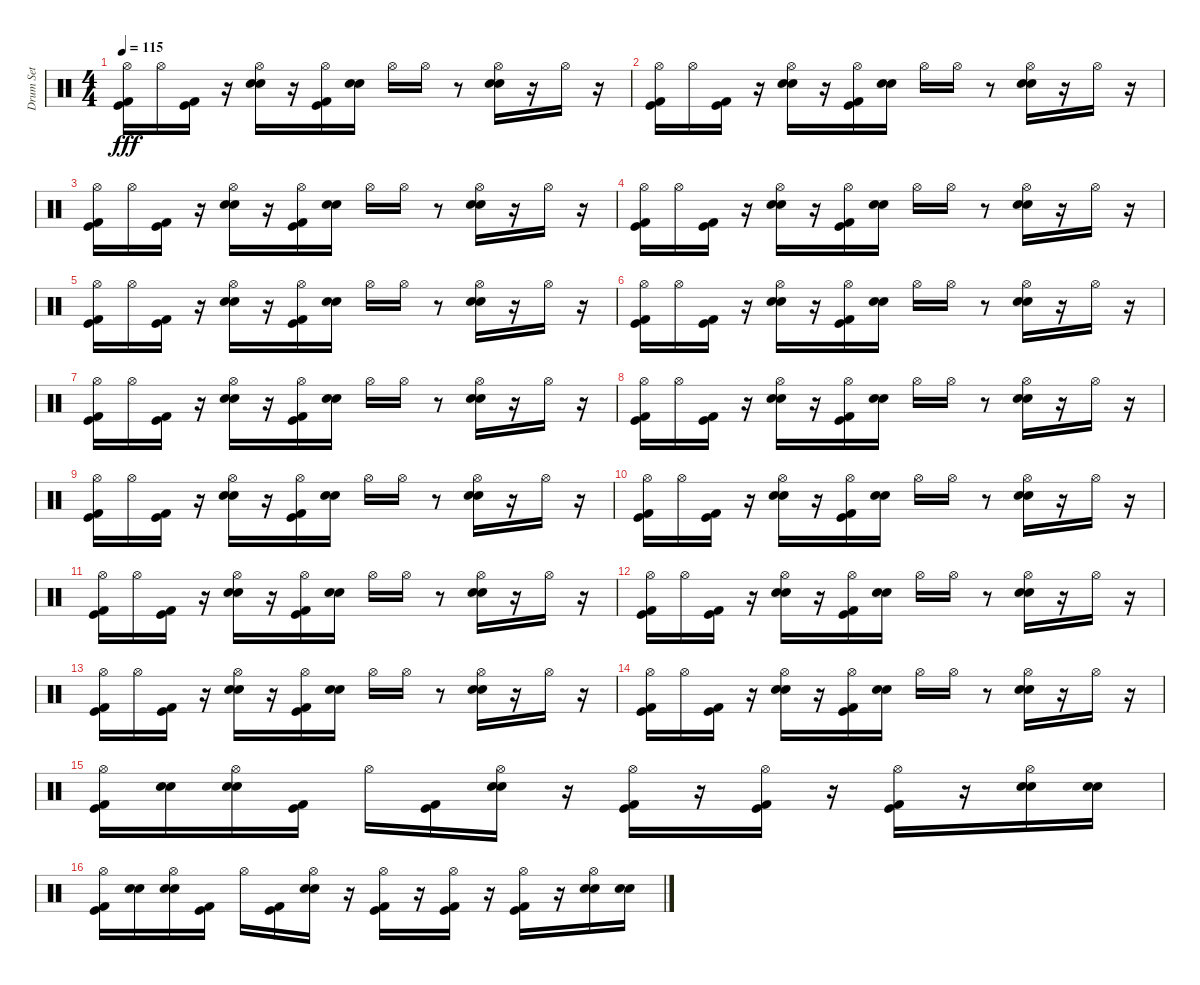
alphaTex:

\track ("Drum Set" "Drum Set") {instrument percussion}
\staff {score}
\articulation defaults
\ts (4 4)
\tempo 115
\clef neutral
\ks c
("Hi-Hat (open)" "Kick (hit)" "Kick (hit) 2").16{dy fff} "Hi-Hat (open)".16 ("Kick (hit)" "Kick (hit) 2").16 r.16 ("Hi-Hat (open)" "Electric Snare (hit)" "Snare (hit) 2").16 r.16 ("Hi-Hat (open)" "Kick (hit) 2" "Kick (hit)").16 ("Electric Snare (hit)" "Snare (hit) 2").16 "Hi-Hat (open)".16 "Hi-Hat (open)".16 r.8 ("Hi-Hat (open)" "Electric Snare (hit)" "Snare (hit) 2").16 r.16 "Hi-Hat (open)".16 r.16 |
("Hi-Hat (open)" "Kick (hit)" "Kick (hit) 2").16 "Hi-Hat (open)".16 ("Kick (hit)" "Kick (hit) 2").16 r.16 ("Hi-Hat (open)" "Electric Snare (hit)" "Snare (hit) 2").16 r.16 ("Hi-Hat (open)" "Kick (hit) 2" "Kick (hit)").16 ("Electric Snare (hit)" "Snare (hit) 2").16 "Hi-Hat (open)".16 "Hi-Hat (open)".16 r.8 ("Hi-Hat (open)" "Electric Snare (hit)" "Snare (hit) 2").16 r.16 "Hi-Hat (open)".16 r.16 |
("Hi-Hat (open)" "Kick (hit)" "Kick (hit) 2").16 "Hi-Hat (open)".16 ("Kick (hit)" "Kick (hit) 2").16 r.16 ("Hi-Hat (open)" "Electric Snare (hit)" "Snare (hit) 2").16 r.16 ("Hi-Hat (open)" "Kick (hit) 2" "Kick (hit)").16 ("Electric Snare (hit)" "Snare (hit) 2").16 "Hi-Hat (open)".16 "Hi-Hat (open)".16 r.8 ("Hi-Hat (open)" "Electric Snare (hit)" "Snare (hit) 2").16 r.16 "Hi-Hat (open)".16 r.16 |
("Hi-Hat (open)" "Kick (hit)" "Kick (hit) 2").16 "Hi-Hat (open)".16 ("Kick (hit)" "Kick (hit) 2").16 r.16 ("Hi-Hat (open)" "Electric Snare (hit)" "Snare (hit) 2").16 r.16 ("Hi-Hat (open)" "Kick (hit) 2" "Kick (hit)").16 ("Electric Snare (hit)" "Snare (hit) 2").16 "Hi-Hat (open)".16 "Hi-Hat (open)".16 r.8 ("Hi-Hat (open)" "Electric Snare (hit)" "Snare (hit) 2").16 r.16 "Hi-Hat (open)".16 r.16 |
("Hi-Hat (open)" "Kick (hit)" "Kick (hit) 2").16 "Hi-Hat (open)".16 ("Kick (hit)" "Kick (hit) 2").16 r.16 ("Hi-Hat (open)" "Electric Snare (hit)" "Snare (hit) 2").16 r.16 ("Hi-Hat (open)" "Kick (hit) 2" "Kick (hit)").16 ("Electric Snare (hit)" "Snare (hit) 2").16 "Hi-Hat (open)".16 "Hi-Hat (open)".16 r.8 ("Hi-Hat (open)" "Electric Snare (hit)" "Snare (hit) 2").16 r.16 "Hi-Hat (open)".16 r.16 |
("Hi-Hat (open)" "Kick (hit)" "Kick (hit) 2").16 "Hi-Hat (open)".16 ("Kick (hit)" "Kick (hit) 2").16 r.16 ("Hi-Hat (open)" "Electric Snare (hit)" "Snare (hit) 2").16 r.16 ("Hi-Hat (open)" "Kick (hit) 2" "Kick (hit)").16 ("Electric Snare (hit)" "Snare (hit) 2").16 "Hi-Hat (open)".16 "Hi-Hat (open)".16 r.8 ("Hi-Hat (open)" "Electric Snare (hit)" "Snare (hit) 2").16 r.16 "Hi-Hat (open)".16 r.16 |
("Hi-Hat (open)" "Kick (hit)" "Kick (hit) 2").16 "Hi-Hat (open)".16 ("Kick (hit)" "Kick (hit) 2").16 r.16 ("Hi-Hat (open)" "Electric Snare (hit)" "Snare (hit) 2").16 r.16 ("Hi-Hat (open)" "Kick (hit) 2" "Kick (hit)").16 ("Electric Snare (hit)" "Snare (hit) 2").16 "Hi-Hat (open)".16 "Hi-Hat (open)".16 r.8 ("Hi-Hat (open)" "Electric Snare (hit)" "Snare (hit) 2").16 r.16 "Hi-Hat (open)".16 r.16 |
("Hi-Hat (open)" "Kick (hit)" "Kick (hit) 2").16 "Hi-Hat (open)".16 ("Kick (hit)" "Kick (hit) 2").16 r.16 ("Hi-Hat (open)" "Electric Snare (hit)" "Snare (hit) 2").16 r.16 ("Hi-Hat (open)" "Kick (hit) 2" "Kick (hit)").16 ("Electric Snare (hit)" "Snare (hit) 2").16 "Hi-Hat (open)".16 "Hi-Hat (open)".16 r.8 ("Hi-Hat (open)" "Electric Snare (hit)" "Snare (hit) 2").16 r.16 "Hi-Hat (open)".16 r.16 |
("Hi-Hat (open)" "Kick (hit)" "Kick (hit) 2").16 "Hi-Hat (open)".16 ("Kick (hit)" "Kick (hit) 2").16 r.16 ("Hi-Hat (open)" "Electric Snare (hit)" "Snare (hit) 2").16 r.16 ("Hi-Hat (open)" "Kick (hit) 2" "Kick (hit)").16 ("Electric Snare (hit)" "Snare (hit) 2").16 "Hi-Hat (open)".16 "Hi-Hat (open)".16 r.8 ("Hi-Hat (open)" "Electric Snare (hit)" "Snare (hit) 2").16 r.16 "Hi-Hat (open)".16 r.16 |
("Hi-Hat (open)" "Kick (hit)" "Kick (hit) 2").16 "Hi-Hat (open)".16 ("Kick (hit)" "Kick (hit) 2").16 r.16 ("Hi-Hat (open)" "Electric Snare (hit)" "Snare (hit) 2").16 r.16 ("Hi-Hat (open)" "Kick (hit) 2" "Kick (hit)").16 ("Electric Snare (hit)" "Snare (hit) 2").16 "Hi-Hat (open)".16 "Hi-Hat (open)".16 r.8 ("Hi-Hat (open)" "Electric Snare (hit)" "Snare (hit) 2").16 r.16 "Hi-Hat (open)".16 r.16 |
("Hi-Hat (open)" "Kick (hit)" "Kick (hit) 2").16 "Hi-Hat (open)".16 ("Kick (hit)" "Kick (hit) 2").16 r.16 ("Hi-Hat (open)" "Electric Snare (hit)" "Snare (hit) 2").16 r.16 ("Hi-Hat (open)" "Kick (hit) 2" "Kick (hit)").16 ("Electric Snare (hit)" "Snare (hit) 2").16 "Hi-Hat (open)".16 "Hi-Hat (open)".16 r.8 ("Hi-Hat (open)" "Electric Snare (hit)" "Snare (hit) 2").16 r.16 "Hi-Hat (open)".16 r.16 |
("Hi-Hat (open)" "Kick (hit)" "Kick (hit) 2").16 "Hi-Hat (open)".16 ("Kick (hit)" "Kick (hit) 2").16 r.16 ("Hi-Hat (open)" "Electric Snare (hit)" "Snare (hit) 2").16 r.16 ("Hi-Hat (open)" "Kick (hit) 2" "Kick (hit)").16 ("Electric Snare (hit)" "Snare (hit) 2").16 "Hi-Hat (open)".16 "Hi-Hat (open)".16 r.8 ("Hi-Hat (open)" "Electric Snare (hit)" "Snare (hit) 2").16 r.16 "Hi-Hat (open)".16 r.16 |
("Hi-Hat (open)" "Kick (hit)" "Kick (hit) 2").16 "Hi-Hat (open)".16 ("Kick (hit)" "Kick (hit) 2").16 r.16 ("Hi-Hat (open)" "Electric Snare (hit)" "Snare (hit) 2").16 r.16 ("Hi-Hat (open)" "Kick (hit) 2" "Kick (hit)").16 ("Electric Snare (hit)" "Snare (hit) 2").16 "Hi-Hat (open)".16 "Hi-Hat (open)".16 r.8 ("Hi-Hat (open)" "Electric Snare (hit)" "Snare (hit) 2").16 r.16 "Hi-Hat (open)".16 r.16 |
("Hi-Hat (open)" "Kick (hit)" "Kick (hit) 2").16 "Hi-Hat (open)".16 ("Kick (hit)" "Kick (hit) 2").16 r.16 ("Hi-Hat (open)" "Electric Snare (hit)" "Snare (hit) 2").16 r.16 ("Hi-Hat (open)" "Kick (hit) 2" "Kick (hit)").16 ("Electric Snare (hit)" "Snare (hit) 2").16 "Hi-Hat (open)".16 "Hi-Hat (open)".16 r.8 ("Hi-Hat (open)" "Electric Snare (hit)" "Snare (hit) 2").16 r.16 "Hi-Hat (open)".16 r.16 |
("Hi-Hat (open)" "Kick (hit) 2" "Kick (hit)").16 ("Electric Snare (hit)" "Snare (hit) 2").16 ("Hi-Hat (open)" "Snare (hit) 2" "Electric Snare (hit)").16 ("Kick (hit)" "Kick (hit) 2").16 "Hi-Hat (open)".16 ("Kick (hit) 2" "Kick (hit)").16 ("Hi-Hat (open)" "Electric Snare (hit)" "Snare (hit) 2").16 r.16 ("Kick (hit)" "Kick (hit) 2" "Hi-Hat (open)").16 r.16 ("Hi-Hat (open)" "Kick (hit) 2" "Kick (hit)").16 r.16 ("Hi-Hat (open)" "Kick (hit)" "Kick (hit) 2").16 r.16 ("Hi-Hat (open)" "Electric Snare (hit)" "Snare (hit) 2").16 ("Snare (hit) 2" "Electric Snare (hit)").16 |
("Hi-Hat (open)" "Kick (hit) 2" "Kick (hit)").16 ("Electric Snare (hit)" "Snare (hit) 2").16 ("Hi-Hat (open)" "Snare (hit) 2" "Electric Snare (hit)").16 ("Kick (hit)" "Kick (hit) 2").16 "Hi-Hat (open)".16 ("Kick (hit) 2" "Kick (hit)").16 ("Hi-Hat (open)" "Electric Snare (hit)" "Snare (hit) 2").16 r.16 ("Kick (hit)" "Kick (hit) 2" "Hi-Hat (open)").16 r.16 ("Hi-Hat (open)" "Kick (hit) 2" "Kick (hit)").16 r.16 ("Hi-Hat (open)" "Kick (hit)" "Kick (hit) 2").16 r.16 ("Hi-Hat (open)" "Electric Snare (hit)" "Snare (hit) 2").16 ("Snare (hit) 2" "Electric Snare (hit)").16
